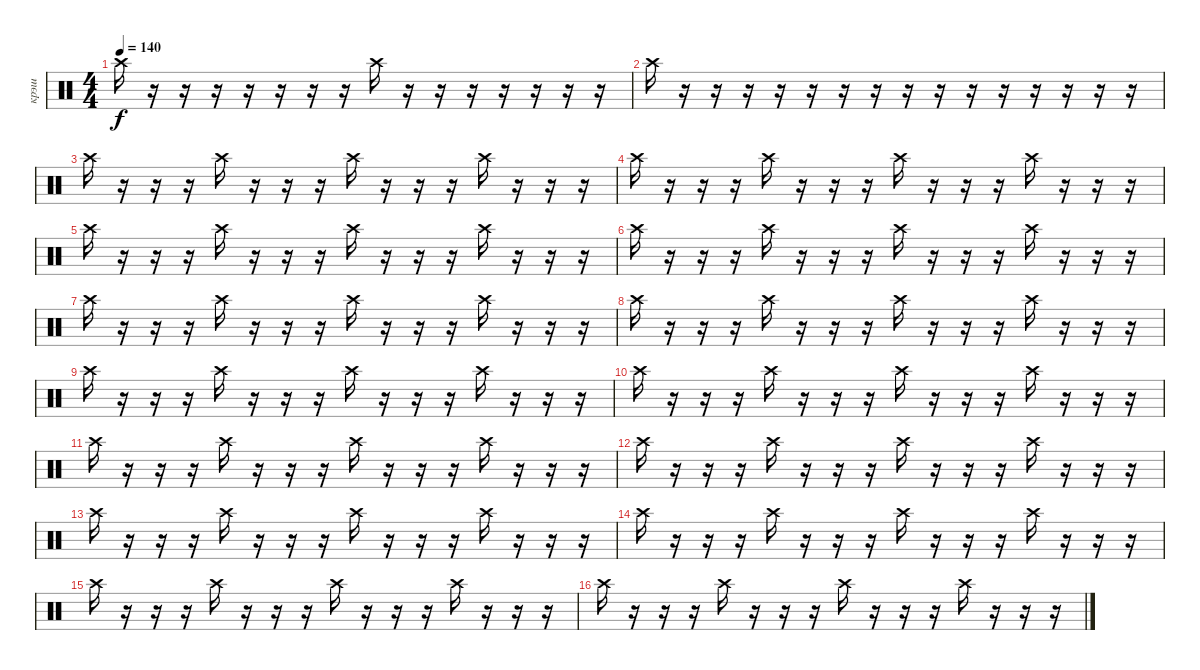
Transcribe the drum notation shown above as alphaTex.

\track ("крэш" "крэш") {mute instrument percussion}
\staff {score}
\articulation defaults
\ts (4 4)
\tempo 140
\clef neutral
\ks c "Crash high (hit)".16{dy f}
r.16 r.16 r.16 r.16 r.16 r.16 r.16 "Crash high (hit)".16 r.16 r.16 r.16 r.16 r.16 r.16 r.16 |
"Crash high (hit)".16 r.16 r.16 r.16 r.16 r.16 r.16 r.16 r.16 r.16 r.16 r.16 r.16 r.16 r.16 r.16 |
"Crash high (hit)".16 r.16 r.16 r.16 "Crash high (hit)".16 r.16 r.16 r.16 "Crash high (hit)".16 r.16 r.16 r.16 "Crash high (hit)".16 r.16 r.16 r.16 |
"Crash high (hit)".16 r.16 r.16 r.16 "Crash high (hit)".16 r.16 r.16 r.16 "Crash high (hit)".16 r.16 r.16 r.16 "Crash high (hit)".16 r.16 r.16 r.16 |
"Crash high (hit)".16 r.16 r.16 r.16 "Crash high (hit)".16 r.16 r.16 r.16 "Crash high (hit)".16 r.16 r.16 r.16 "Crash high (hit)".16 r.16 r.16 r.16 |
"Crash high (hit)".16 r.16 r.16 r.16 "Crash high (hit)".16 r.16 r.16 r.16 "Crash high (hit)".16 r.16 r.16 r.16 "Crash high (hit)".16 r.16 r.16 r.16 |
"Crash high (hit)".16 r.16 r.16 r.16 "Crash high (hit)".16 r.16 r.16 r.16 "Crash high (hit)".16 r.16 r.16 r.16 "Crash high (hit)".16 r.16 r.16 r.16 |
"Crash high (hit)".16 r.16 r.16 r.16 "Crash high (hit)".16 r.16 r.16 r.16 "Crash high (hit)".16 r.16 r.16 r.16 "Crash high (hit)".16 r.16 r.16 r.16 |
"Crash high (hit)".16 r.16 r.16 r.16 "Crash high (hit)".16 r.16 r.16 r.16 "Crash high (hit)".16 r.16 r.16 r.16 "Crash high (hit)".16 r.16 r.16 r.16 |
"Crash high (hit)".16 r.16 r.16 r.16 "Crash high (hit)".16 r.16 r.16 r.16 "Crash high (hit)".16 r.16 r.16 r.16 "Crash high (hit)".16 r.16 r.16 r.16 |
"Crash high (hit)".16 r.16 r.16 r.16 "Crash high (hit)".16 r.16 r.16 r.16 "Crash high (hit)".16 r.16 r.16 r.16 "Crash high (hit)".16 r.16 r.16 r.16 |
"Crash high (hit)".16 r.16 r.16 r.16 "Crash high (hit)".16 r.16 r.16 r.16 "Crash high (hit)".16 r.16 r.16 r.16 "Crash high (hit)".16 r.16 r.16 r.16 |
"Crash high (hit)".16 r.16 r.16 r.16 "Crash high (hit)".16 r.16 r.16 r.16 "Crash high (hit)".16 r.16 r.16 r.16 "Crash high (hit)".16 r.16 r.16 r.16 |
"Crash high (hit)".16 r.16 r.16 r.16 "Crash high (hit)".16 r.16 r.16 r.16 "Crash high (hit)".16 r.16 r.16 r.16 "Crash high (hit)".16 r.16 r.16 r.16 |
"Crash high (hit)".16 r.16 r.16 r.16 "Crash high (hit)".16 r.16 r.16 r.16 "Crash high (hit)".16 r.16 r.16 r.16 "Crash high (hit)".16 r.16 r.16 r.16 |
"Crash high (hit)".16 r.16 r.16 r.16 "Crash high (hit)".16 r.16 r.16 r.16 "Crash high (hit)".16 r.16 r.16 r.16 "Crash high (hit)".16 r.16 r.16 r.16
